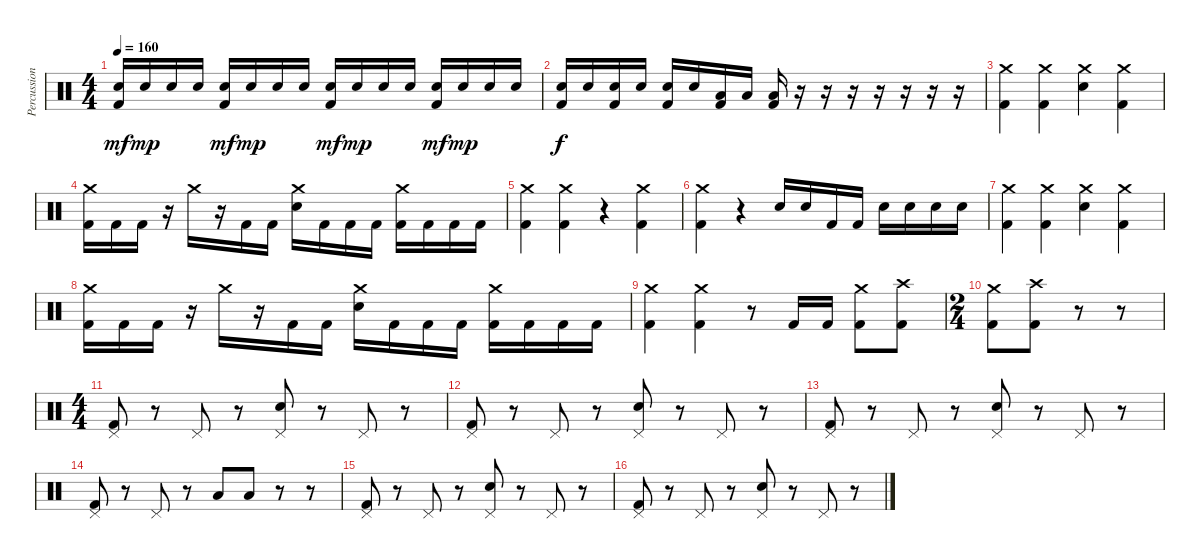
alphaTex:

\track ("Percussions" "Percussion") {instrument percussion}
\staff {score}
\articulation defaults
\ts (4 4)
\tempo 160
\clef neutral
\ks c
("Kick (hit) 2" "Electric Snare (hit)").16{dy mf} "Electric Snare (hit)".16{dy mp} "Electric Snare (hit)".16 "Electric Snare (hit)".16 ("Kick (hit) 2" "Electric Snare (hit)").16{dy mf} "Electric Snare (hit)".16{dy mp} "Electric Snare (hit)".16 "Electric Snare (hit)".16 ("Kick (hit) 2" "Electric Snare (hit)").16{dy mf} "Electric Snare (hit)".16{dy mp} "Electric Snare (hit)".16 "Electric Snare (hit)".16 ("Kick (hit) 2" "Electric Snare (hit)").16{dy mf} "Electric Snare (hit)".16{dy mp} "Electric Snare (hit)".16 "Electric Snare (hit)".16 |
("Kick (hit) 2" "Electric Snare (hit)").16{dy f} "Electric Snare (hit)".16 ("Kick (hit) 2" "Electric Snare (hit)").16 "Electric Snare (hit)".16 ("Kick (hit) 2" "Electric Snare (hit)").16 "Electric Snare (hit)".16 ("Kick (hit) 2" "Low Tom (hit)").16 "Low Tom (hit)".16 ("Kick (hit) 2" "Low Tom (hit)").16 r.16 r.16 r.16 r.16 r.16 r.16 r.16 |
("Kick (hit) 2" "Crash medium (hit)").4 ("Kick (hit) 2" "Crash medium (hit)").4 ("Electric Snare (hit)" "Crash medium (hit)").4 ("Kick (hit) 2" "Crash medium (hit)").4 |
("Kick (hit) 2" "Crash medium (hit)").16 "Kick (hit) 2".16 "Kick (hit) 2".16 r.16 "Crash medium (hit)".16 r.16 "Kick (hit) 2".16 "Kick (hit) 2".16 ("Electric Snare (hit)" "Crash medium (hit)").16 "Kick (hit) 2".16 "Kick (hit) 2".16 "Kick (hit) 2".16 ("Kick (hit) 2" "Crash medium (hit)").16 "Kick (hit) 2".16 "Kick (hit) 2".16 "Kick (hit) 2".16 |
("Kick (hit) 2" "Crash medium (hit)").4 ("Kick (hit) 2" "Crash medium (hit)").4 r.4 ("Kick (hit) 2" "Crash medium (hit)").4 |
("Kick (hit) 2" "Crash medium (hit)").4 r.4 "Electric Snare (hit)".16 "Electric Snare (hit)".16 "Kick (hit) 2".16 "Kick (hit) 2".16 "Electric Snare (hit)".16 "Electric Snare (hit)".16 "Electric Snare (hit)".16 "Electric Snare (hit)".16 |
("Kick (hit) 2" "Crash medium (hit)").4 ("Kick (hit) 2" "Crash medium (hit)").4 ("Electric Snare (hit)" "Crash medium (hit)").4 ("Kick (hit) 2" "Crash medium (hit)").4 |
("Kick (hit) 2" "Crash medium (hit)").16 "Kick (hit) 2".16 "Kick (hit) 2".16 r.16 "Crash medium (hit)".16 r.16 "Kick (hit) 2".16 "Kick (hit) 2".16 ("Electric Snare (hit)" "Crash medium (hit)").16 "Kick (hit) 2".16 "Kick (hit) 2".16 "Kick (hit) 2".16 ("Kick (hit) 2" "Crash medium (hit)").16 "Kick (hit) 2".16 "Kick (hit) 2".16 "Kick (hit) 2".16 |
("Kick (hit) 2" "Crash medium (hit)").4 ("Kick (hit) 2" "Crash medium (hit)").4 r.8 "Kick (hit) 2".16 "Kick (hit) 2".16 ("Kick (hit) 2" "Crash medium (hit)").8 ("Kick (hit) 2" "Crash high (hit)").8 |
\ts (2 4)
("Kick (hit) 2" "Crash medium (hit)").8 ("Kick (hit) 2" "Crash high (hit)").8 r.8 r.8 |
\ts (4 4)
("Kick (hit) 2" "Pedal Hi-Hat (hit)").8 r.8 "Pedal Hi-Hat (hit)".8 r.8 ("Electric Snare (hit)" "Pedal Hi-Hat (hit)").8 r.8 "Pedal Hi-Hat (hit)".8 r.8 |
("Kick (hit) 2" "Pedal Hi-Hat (hit)").8 r.8 "Pedal Hi-Hat (hit)".8 r.8 ("Electric Snare (hit)" "Pedal Hi-Hat (hit)").8 r.8 "Pedal Hi-Hat (hit)".8 r.8 |
("Kick (hit) 2" "Pedal Hi-Hat (hit)").8 r.8 "Pedal Hi-Hat (hit)".8 r.8 ("Electric Snare (hit)" "Pedal Hi-Hat (hit)").8 r.8 "Pedal Hi-Hat (hit)".8 r.8 |
("Kick (hit) 2" "Pedal Hi-Hat (hit)").8 r.8 "Pedal Hi-Hat (hit)".8 r.8 "Low Tom (hit)".8 "Low Tom (hit)".8 r.8 r.8 |
("Kick (hit) 2" "Pedal Hi-Hat (hit)").8 r.8 "Pedal Hi-Hat (hit)".8 r.8 ("Electric Snare (hit)" "Pedal Hi-Hat (hit)").8 r.8 "Pedal Hi-Hat (hit)".8 r.8 |
("Kick (hit) 2" "Pedal Hi-Hat (hit)").8 r.8 "Pedal Hi-Hat (hit)".8 r.8 ("Electric Snare (hit)" "Pedal Hi-Hat (hit)").8 r.8 "Pedal Hi-Hat (hit)".8 r.8
